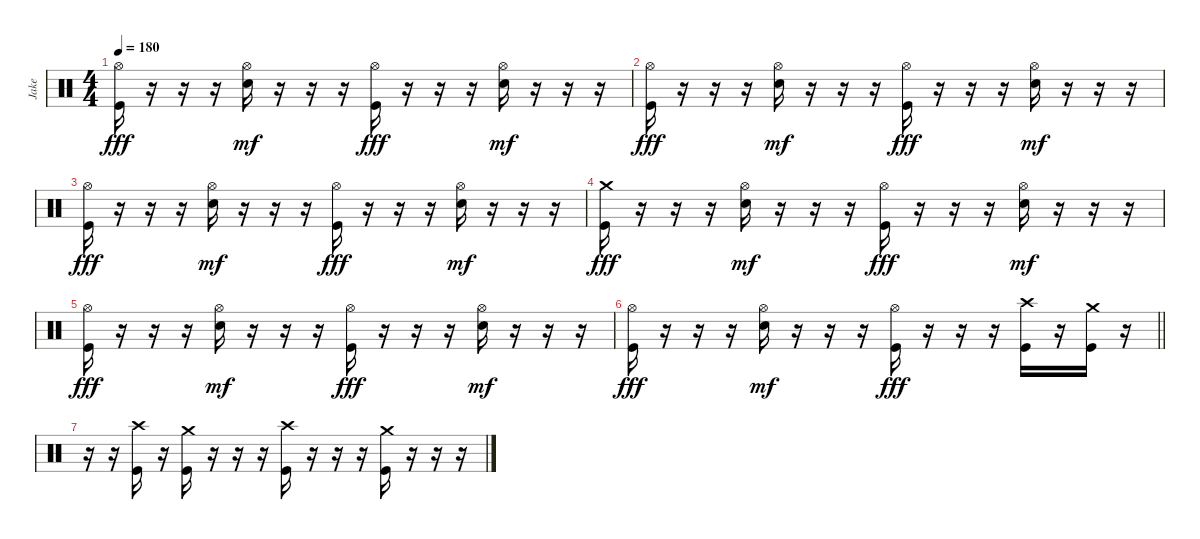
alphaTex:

\track ("Jake" "Jake") {instrument percussion}
\staff {score}
\articulation defaults
\ts (4 4)
\tempo 180
\clef neutral
\ks c
("Hi-Hat (open)" "Kick (hit)").16{dy fff} r.16 r.16 r.16 ("Hi-Hat (open)" "Electric Snare (hit)").16{dy mf} r.16 r.16 r.16 ("Hi-Hat (open)" "Kick (hit)").16{dy fff} r.16 r.16 r.16 ("Hi-Hat (open)" "Electric Snare (hit)").16{dy mf} r.16 r.16 r.16 |
("Hi-Hat (open)" "Kick (hit)").16{dy fff} r.16 r.16 r.16 ("Hi-Hat (open)" "Electric Snare (hit)").16{dy mf} r.16 r.16 r.16 ("Hi-Hat (open)" "Kick (hit)").16{dy fff} r.16 r.16 r.16 ("Hi-Hat (open)" "Electric Snare (hit)").16{dy mf} r.16 r.16 r.16 |
("Hi-Hat (open)" "Kick (hit)").16{dy fff} r.16 r.16 r.16 ("Hi-Hat (open)" "Electric Snare (hit)").16{dy mf} r.16 r.16 r.16 ("Hi-Hat (open)" "Kick (hit)").16{dy fff} r.16 r.16 r.16 ("Hi-Hat (open)" "Electric Snare (hit)").16{dy mf} r.16 r.16 r.16 |
("Crash medium (hit)" "Kick (hit)").16{dy fff} r.16 r.16 r.16 ("Hi-Hat (open)" "Electric Snare (hit)").16{dy mf} r.16 r.16 r.16 ("Hi-Hat (open)" "Kick (hit)").16{dy fff} r.16 r.16 r.16 ("Hi-Hat (open)" "Electric Snare (hit)").16{dy mf} r.16 r.16 r.16 |
("Hi-Hat (open)" "Kick (hit)").16{dy fff} r.16 r.16 r.16 ("Hi-Hat (open)" "Electric Snare (hit)").16{dy mf} r.16 r.16 r.16 ("Hi-Hat (open)" "Kick (hit)").16{dy fff} r.16 r.16 r.16 ("Hi-Hat (open)" "Electric Snare (hit)").16{dy mf} r.16 r.16 r.16 |
\barLineRight lightlight
("Hi-Hat (open)" "Kick (hit)").16{dy fff} r.16 r.16 r.16 ("Hi-Hat (open)" "Electric Snare (hit)").16{dy mf} r.16 r.16 r.16 ("Hi-Hat (open)" "Kick (hit)").16{dy fff} r.16 r.16 r.16 ("Crash high (hit)" "Kick (hit)").16 r.16 ("Crash medium (hit)" "Kick (hit)").16 r.16 |
r.16 r.16 ("Crash high (hit)" "Kick (hit)").16 r.16 ("Crash medium (hit)" "Kick (hit)").16 r.16 r.16 r.16 ("Crash high (hit)" "Kick (hit)").16 r.16 r.16 r.16 ("Crash medium (hit)" "Kick (hit)").16 r.16 r.16 r.16
